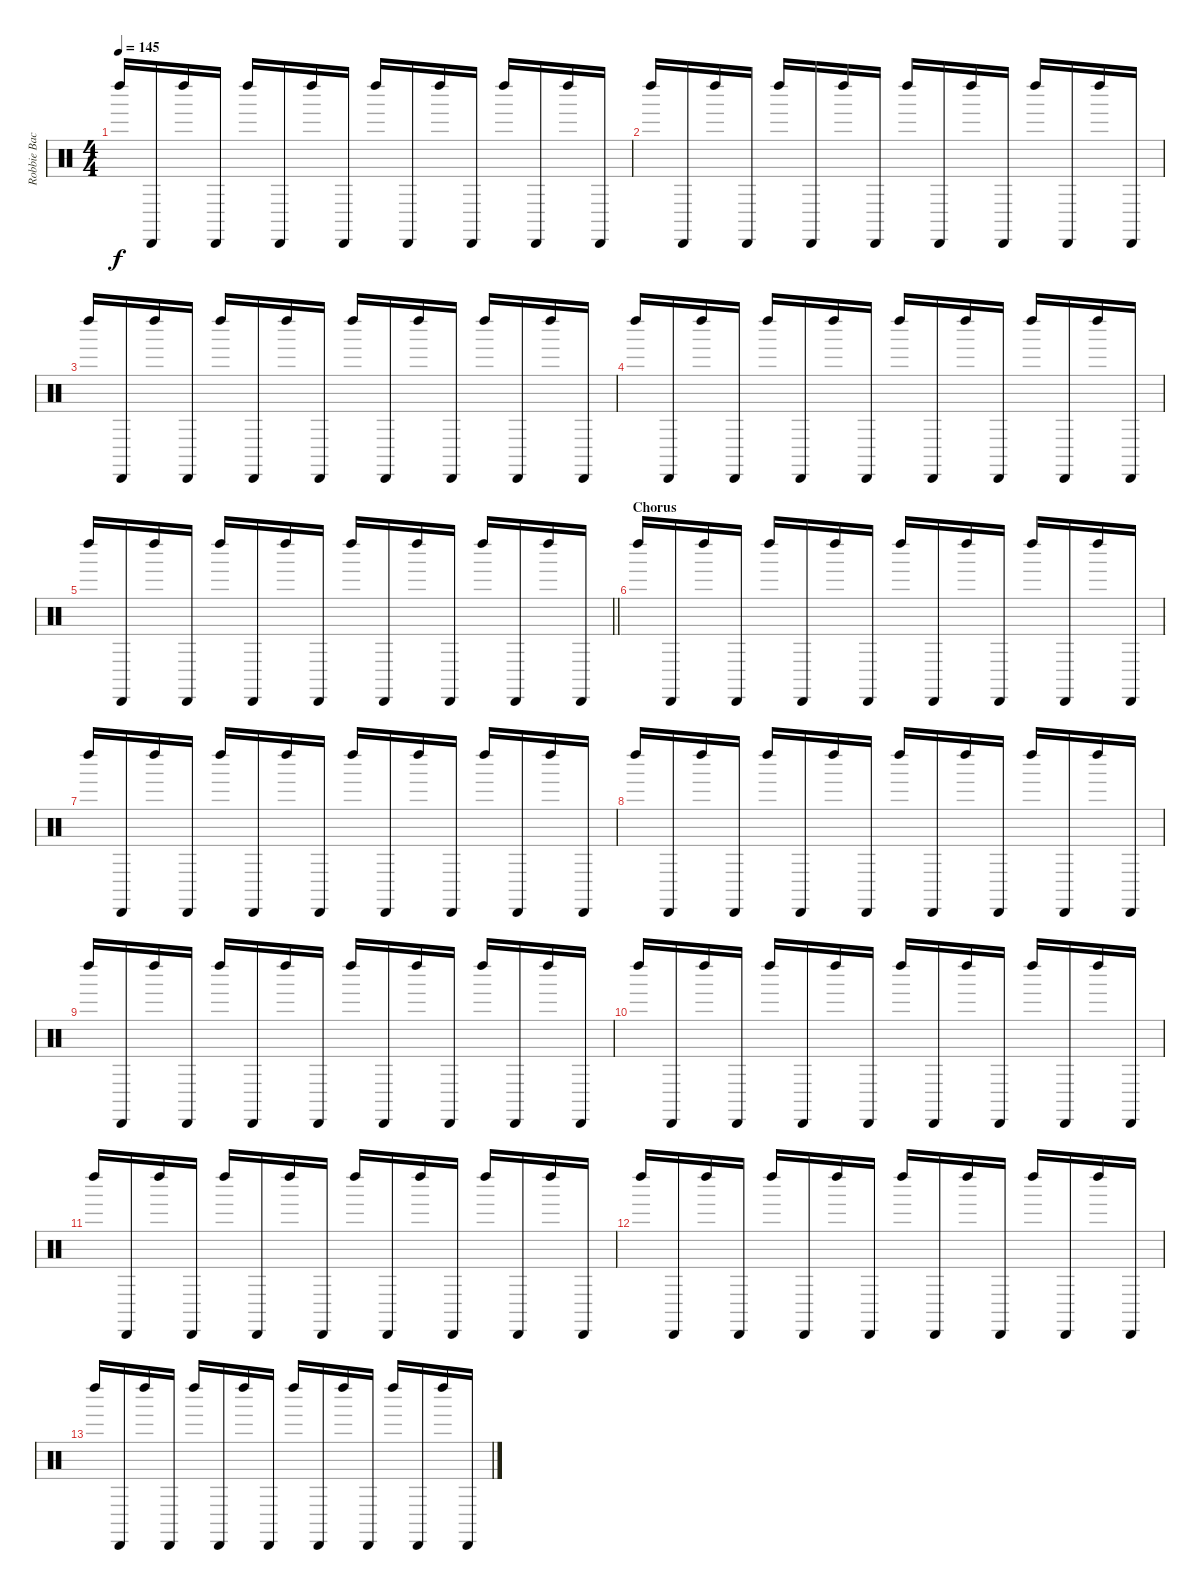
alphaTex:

\track ("Robbie Bachman 2" "Robbie Bac") {instrument percussion}
\staff {score}
\articulation defaults
\ts (4 4)
\tempo 145
\clef neutral
\ks c "Left Maraca (hit)".16{dy f} "Cabasa (hit)".16 "Left Maraca (hit)".16 "Cabasa (hit)".16 "Left Maraca (hit)".16 "Cabasa (hit)".16 "Left Maraca (hit)".16 "Cabasa (hit)".16 "Left Maraca (hit)".16 "Cabasa (hit)".16 "Left Maraca (hit)".16 "Cabasa (hit)".16 "Left Maraca (hit)".16 "Cabasa (hit)".16 "Left Maraca (hit)".16 "Cabasa (hit)".16
|
"Left Maraca (hit)".16 "Cabasa (hit)".16 "Left Maraca (hit)".16 "Cabasa (hit)".16 "Left Maraca (hit)".16 "Cabasa (hit)".16 "Left Maraca (hit)".16 "Cabasa (hit)".16 "Left Maraca (hit)".16 "Cabasa (hit)".16 "Left Maraca (hit)".16 "Cabasa (hit)".16 "Left Maraca (hit)".16 "Cabasa (hit)".16 "Left Maraca (hit)".16 "Cabasa (hit)".16 |
"Left Maraca (hit)".16 "Cabasa (hit)".16 "Left Maraca (hit)".16 "Cabasa (hit)".16 "Left Maraca (hit)".16 "Cabasa (hit)".16 "Left Maraca (hit)".16 "Cabasa (hit)".16 "Left Maraca (hit)".16 "Cabasa (hit)".16 "Left Maraca (hit)".16 "Cabasa (hit)".16 "Left Maraca (hit)".16 "Cabasa (hit)".16 "Left Maraca (hit)".16 "Cabasa (hit)".16 |
"Left Maraca (hit)".16 "Cabasa (hit)".16 "Left Maraca (hit)".16 "Cabasa (hit)".16 "Left Maraca (hit)".16 "Cabasa (hit)".16 "Left Maraca (hit)".16 "Cabasa (hit)".16 "Left Maraca (hit)".16 "Cabasa (hit)".16 "Left Maraca (hit)".16 "Cabasa (hit)".16 "Left Maraca (hit)".16 "Cabasa (hit)".16 "Left Maraca (hit)".16 "Cabasa (hit)".16 |
\barLineRight lightlight "Left Maraca (hit)".16 "Cabasa (hit)".16 "Left Maraca (hit)".16 "Cabasa (hit)".16 "Left Maraca (hit)".16 "Cabasa (hit)".16 "Left Maraca (hit)".16 "Cabasa (hit)".16 "Left Maraca (hit)".16 "Cabasa (hit)".16 "Left Maraca (hit)".16 "Cabasa (hit)".16 "Left Maraca (hit)".16 "Cabasa (hit)".16 "Left Maraca (hit)".16 "Cabasa (hit)".16
|
\section ("" "Chorus")
"Left Maraca (hit)".16 "Cabasa (hit)".16 "Left Maraca (hit)".16 "Cabasa (hit)".16 "Left Maraca (hit)".16 "Cabasa (hit)".16 "Left Maraca (hit)".16 "Cabasa (hit)".16 "Left Maraca (hit)".16 "Cabasa (hit)".16 "Left Maraca (hit)".16 "Cabasa (hit)".16 "Left Maraca (hit)".16 "Cabasa (hit)".16 "Left Maraca (hit)".16 "Cabasa (hit)".16 |
"Left Maraca (hit)".16 "Cabasa (hit)".16 "Left Maraca (hit)".16 "Cabasa (hit)".16 "Left Maraca (hit)".16 "Cabasa (hit)".16 "Left Maraca (hit)".16 "Cabasa (hit)".16 "Left Maraca (hit)".16 "Cabasa (hit)".16 "Left Maraca (hit)".16 "Cabasa (hit)".16 "Left Maraca (hit)".16 "Cabasa (hit)".16 "Left Maraca (hit)".16 "Cabasa (hit)".16 |
"Left Maraca (hit)".16 "Cabasa (hit)".16 "Left Maraca (hit)".16 "Cabasa (hit)".16 "Left Maraca (hit)".16 "Cabasa (hit)".16 "Left Maraca (hit)".16 "Cabasa (hit)".16 "Left Maraca (hit)".16 "Cabasa (hit)".16 "Left Maraca (hit)".16 "Cabasa (hit)".16 "Left Maraca (hit)".16 "Cabasa (hit)".16 "Left Maraca (hit)".16 "Cabasa (hit)".16 |
"Left Maraca (hit)".16 "Cabasa (hit)".16 "Left Maraca (hit)".16 "Cabasa (hit)".16 "Left Maraca (hit)".16 "Cabasa (hit)".16 "Left Maraca (hit)".16 "Cabasa (hit)".16 "Left Maraca (hit)".16 "Cabasa (hit)".16 "Left Maraca (hit)".16 "Cabasa (hit)".16 "Left Maraca (hit)".16 "Cabasa (hit)".16 "Left Maraca (hit)".16 "Cabasa (hit)".16 |
"Left Maraca (hit)".16 "Cabasa (hit)".16 "Left Maraca (hit)".16 "Cabasa (hit)".16 "Left Maraca (hit)".16 "Cabasa (hit)".16 "Left Maraca (hit)".16 "Cabasa (hit)".16 "Left Maraca (hit)".16 "Cabasa (hit)".16 "Left Maraca (hit)".16 "Cabasa (hit)".16 "Left Maraca (hit)".16 "Cabasa (hit)".16 "Left Maraca (hit)".16 "Cabasa (hit)".16 |
"Left Maraca (hit)".16 "Cabasa (hit)".16 "Left Maraca (hit)".16 "Cabasa (hit)".16 "Left Maraca (hit)".16 "Cabasa (hit)".16 "Left Maraca (hit)".16 "Cabasa (hit)".16 "Left Maraca (hit)".16 "Cabasa (hit)".16 "Left Maraca (hit)".16 "Cabasa (hit)".16 "Left Maraca (hit)".16 "Cabasa (hit)".16 "Left Maraca (hit)".16 "Cabasa (hit)".16 |
"Left Maraca (hit)".16 "Cabasa (hit)".16 "Left Maraca (hit)".16 "Cabasa (hit)".16 "Left Maraca (hit)".16 "Cabasa (hit)".16 "Left Maraca (hit)".16 "Cabasa (hit)".16 "Left Maraca (hit)".16 "Cabasa (hit)".16 "Left Maraca (hit)".16 "Cabasa (hit)".16 "Left Maraca (hit)".16 "Cabasa (hit)".16 "Left Maraca (hit)".16 "Cabasa (hit)".16 |
"Left Maraca (hit)".16 "Cabasa (hit)".16 "Left Maraca (hit)".16 "Cabasa (hit)".16 "Left Maraca (hit)".16 "Cabasa (hit)".16 "Left Maraca (hit)".16 "Cabasa (hit)".16 "Left Maraca (hit)".16 "Cabasa (hit)".16 "Left Maraca (hit)".16 "Cabasa (hit)".16 "Left Maraca (hit)".16 "Cabasa (hit)".16 "Left Maraca (hit)".16 "Cabasa (hit)".16
